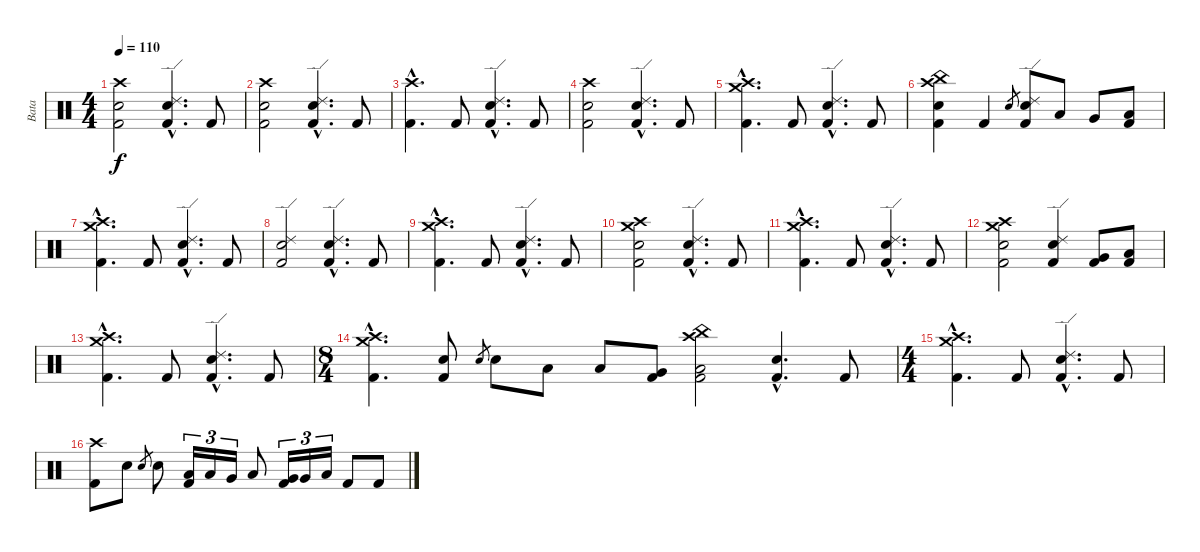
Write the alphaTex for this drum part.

\track ("Bata" "Bata") {instrument percussion}
\staff {score}
\articulation defaults
\ts (4 4)
\tempo 110
\clef neutral
\ks c
("Crash high (hit)" "Snare (hit) 2" "Kick (hit) 2").2{dy f} ("Ride (edge) 2"{hac} "Electric Snare (hit)"{hac} "Kick (hit) 2"{hac}).4{d} "Kick (hit) 2".8 |
("Crash high (hit)" "Snare (hit) 2" "Kick (hit) 2").2 ("Ride (edge) 2"{hac} "Electric Snare (hit)"{hac} "Kick (hit) 2"{hac}).4{d} "Kick (hit) 2".8 |
("Crash high (hit)"{hac} "Kick (hit) 2"{hac}).4{d} "Kick (hit) 2".8 ("Ride (edge) 2"{hac} "Electric Snare (hit)"{hac} "Kick (hit) 2"{hac}).4{d} "Kick (hit) 2".8 |
("Crash high (hit)" "Snare (hit) 2" "Kick (hit) 2").2 ("Ride (edge) 2"{hac} "Electric Snare (hit)"{hac} "Kick (hit) 2"{hac}).4{d} "Kick (hit) 2".8 |
("Crash high (hit)"{hac} "Crash medium (hit)"{hac} "Kick (hit) 2"{hac}).4{d} "Kick (hit) 2".8 ("Ride (edge) 2"{hac} "Electric Snare (hit)"{hac} "Kick (hit) 2"{hac}).4{d} "Kick (hit) 2".8 |
("Crash high (hit)" "China (hit)" "Snare (hit) 2" "Kick (hit) 2").4 "Kick (hit) 2".4 "Electric Snare (hit)".8{gr} ("Ride (edge) 2" "Electric Snare (hit)" "Kick (hit) 2").8 "Low Tom (hit)".8 "Very Low Tom (hit)".8 ("Low Floor Tom (hit)" "Kick (hit) 2").8 |
("Crash high (hit)"{hac} "Crash medium (hit)"{hac} "Kick (hit) 2"{hac}).4{d} "Kick (hit) 2".8 ("Ride (edge) 2"{hac} "Electric Snare (hit)"{hac} "Kick (hit) 2"{hac}).4{d} "Kick (hit) 2".8 |
("Ride (edge) 2" "Electric Snare (hit)" "Kick (hit) 2").2 ("Ride (edge) 2"{hac} "Electric Snare (hit)"{hac} "Kick (hit) 2"{hac}).4{d} "Kick (hit) 2".8 |
("Crash high (hit)"{hac} "Crash medium (hit)"{hac} "Kick (hit) 2"{hac}).4{d} "Kick (hit) 2".8 ("Ride (edge) 2"{hac} "Electric Snare (hit)"{hac} "Kick (hit) 2"{hac}).4{d} "Kick (hit) 2".8 |
("Crash high (hit)" "Crash medium (hit)" "Snare (hit) 2" "Kick (hit) 2").2 ("Ride (edge) 2"{hac} "Electric Snare (hit)"{hac} "Kick (hit) 2"{hac}).4{d} "Kick (hit) 2".8 |
("Crash high (hit)"{hac} "Crash medium (hit)"{hac} "Kick (hit) 2"{hac}).4{d} "Kick (hit) 2".8 ("Ride (edge) 2"{hac} "Electric Snare (hit)"{hac} "Kick (hit) 2"{hac}).4{d} "Kick (hit) 2".8 |
("Crash high (hit)" "Crash medium (hit)" "Snare (hit) 2" "Kick (hit) 2").2 ("Ride (edge) 2" "Electric Snare (hit)" "Kick (hit) 2").4 ("Very Low Tom (hit)" "Kick (hit) 2").8 ("Low Floor Tom (hit)" "Kick (hit) 2").8 |
("Crash high (hit)"{hac} "Crash medium (hit)"{hac} "Kick (hit) 2"{hac}).4{d} "Kick (hit) 2".8 ("Ride (edge) 2"{hac} "Electric Snare (hit)"{hac} "Kick (hit) 2"{hac}).4{d} "Kick (hit) 2".8 |
\ts (8 4)
("Crash high (hit)"{hac} "Crash medium (hit)"{hac} "Kick (hit) 2"{hac}).4{d} ("Electric Snare (hit)" "Kick (hit) 2").8 "Electric Snare (hit)".8{gr} "Electric Snare (hit)".8 "Low Tom (hit)".8 "Low Tom (hit)".8 ("Very Low Tom (hit)" "Kick (hit) 2").8 ("Crash high (hit)" "China (hit)" "Low Floor Tom (hit)" "Kick (hit) 2").2 ("Electric Snare (hit)"{hac} "Kick (hit) 2"{hac}).4{d} "Kick (hit) 2".8 |
\ts (4 4)
("Crash high (hit)"{hac} "Crash medium (hit)"{hac} "Kick (hit) 2"{hac}).4{d} "Kick (hit) 2".8 ("Ride (edge) 2"{hac} "Electric Snare (hit)"{hac} "Kick (hit) 2"{hac}).4{d} "Kick (hit) 2".8 |
("Crash high (hit)" "Kick (hit) 2").8 "Electric Snare (hit)".8 "Electric Snare (hit)".8{gr} "Electric Snare (hit)".8 ("Low Tom (hit)" "Kick (hit) 2").16{tu (3 2)} "Low Tom (hit)".16{tu (3 2)} "Very Low Tom (hit)".16{tu (3 2)} "Low Floor Tom (hit)".8 ("Very Low Tom (hit)" "Kick (hit) 2").16{tu (3 2)} "Very Low Tom (hit)".16{tu (3 2)} "Low Floor Tom (hit)".16{tu (3 2)} "Kick (hit) 2".8 "Kick (hit) 2".8
